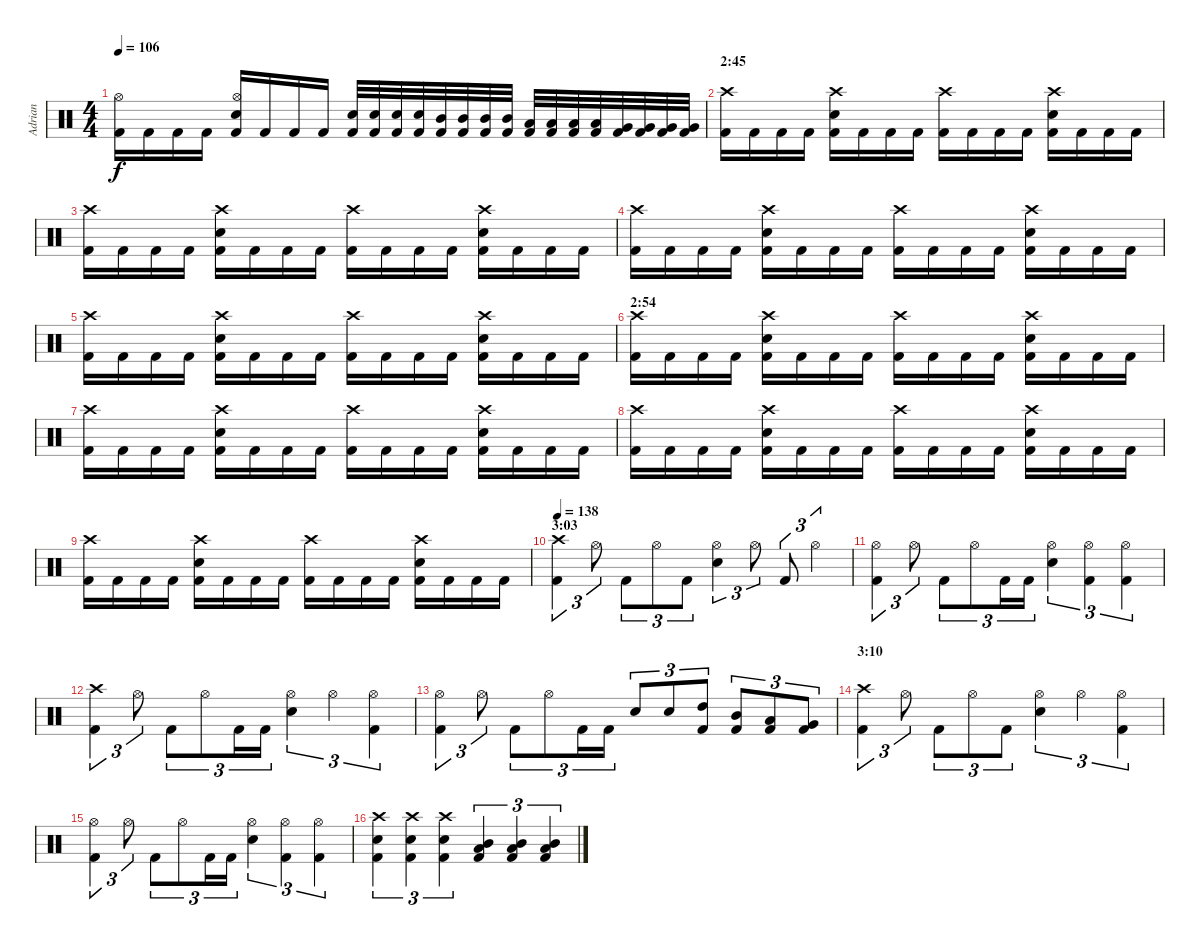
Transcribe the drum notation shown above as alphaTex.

\track ("Adrian" "Adrian") {instrument percussion}
\staff {score}
\articulation defaults
\ts (4 4)
\tempo 106
\clef neutral
\ks c
("Kick (hit) 2" "Hi-Hat (open)").16{dy f} "Kick (hit) 2".16 "Kick (hit) 2".16 "Kick (hit) 2".16 ("Kick (hit) 2" "Snare (hit) 2" "Hi-Hat (open)").16 "Kick (hit) 2".16 "Kick (hit) 2".16 "Kick (hit) 2".16 ("Kick (hit) 2" "Snare (hit) 2").32 ("Kick (hit) 2" "Snare (hit) 2").32 ("Kick (hit) 2" "Snare (hit) 2").32 ("Kick (hit) 2" "Snare (hit) 2").32 ("Kick (hit) 2" "Mid Tom (hit)").32 ("Kick (hit) 2" "Mid Tom (hit)").32 ("Kick (hit) 2" "Mid Tom (hit)").32 ("Kick (hit) 2" "Mid Tom (hit)").32 ("Kick (hit) 2" "Low Tom (hit)").32 ("Kick (hit) 2" "Low Tom (hit)").32 ("Kick (hit) 2" "Low Tom (hit)").32 ("Kick (hit) 2" "Low Tom (hit)").32 ("Kick (hit) 2" "Very Low Tom (hit)").32 ("Kick (hit) 2" "Very Low Tom (hit)").32 ("Kick (hit) 2" "Very Low Tom (hit)").32 ("Kick (hit) 2" "Very Low Tom (hit)").32 |
\section ("" "2:45")
("Kick (hit) 2" "Crash high (hit)").16 "Kick (hit) 2".16 "Kick (hit) 2".16 "Kick (hit) 2".16 ("Kick (hit) 2" "Snare (hit) 2" "Crash high (hit)").16 "Kick (hit) 2".16 "Kick (hit) 2".16 "Kick (hit) 2".16 ("Kick (hit) 2" "Crash high (hit)").16 "Kick (hit) 2".16 "Kick (hit) 2".16 "Kick (hit) 2".16 ("Kick (hit) 2" "Snare (hit) 2" "Crash high (hit)").16 "Kick (hit) 2".16 "Kick (hit) 2".16 "Kick (hit) 2".16 |
("Kick (hit) 2" "Crash high (hit)").16 "Kick (hit) 2".16 "Kick (hit) 2".16 "Kick (hit) 2".16 ("Kick (hit) 2" "Snare (hit) 2" "Crash high (hit)").16 "Kick (hit) 2".16 "Kick (hit) 2".16 "Kick (hit) 2".16 ("Kick (hit) 2" "Crash high (hit)").16 "Kick (hit) 2".16 "Kick (hit) 2".16 "Kick (hit) 2".16 ("Kick (hit) 2" "Snare (hit) 2" "Crash high (hit)").16 "Kick (hit) 2".16 "Kick (hit) 2".16 "Kick (hit) 2".16 |
("Kick (hit) 2" "Crash high (hit)").16 "Kick (hit) 2".16 "Kick (hit) 2".16 "Kick (hit) 2".16 ("Kick (hit) 2" "Snare (hit) 2" "Crash high (hit)").16 "Kick (hit) 2".16 "Kick (hit) 2".16 "Kick (hit) 2".16 ("Kick (hit) 2" "Crash high (hit)").16 "Kick (hit) 2".16 "Kick (hit) 2".16 "Kick (hit) 2".16 ("Kick (hit) 2" "Snare (hit) 2" "Crash high (hit)").16 "Kick (hit) 2".16 "Kick (hit) 2".16 "Kick (hit) 2".16 |
("Kick (hit) 2" "Crash high (hit)").16 "Kick (hit) 2".16 "Kick (hit) 2".16 "Kick (hit) 2".16 ("Kick (hit) 2" "Snare (hit) 2" "Crash high (hit)").16 "Kick (hit) 2".16 "Kick (hit) 2".16 "Kick (hit) 2".16 ("Kick (hit) 2" "Crash high (hit)").16 "Kick (hit) 2".16 "Kick (hit) 2".16 "Kick (hit) 2".16 ("Kick (hit) 2" "Snare (hit) 2" "Crash high (hit)").16 "Kick (hit) 2".16 "Kick (hit) 2".16 "Kick (hit) 2".16 |
\section ("" "2:54")
("Kick (hit) 2" "Crash high (hit)").16 "Kick (hit) 2".16 "Kick (hit) 2".16 "Kick (hit) 2".16 ("Kick (hit) 2" "Snare (hit) 2" "Crash high (hit)").16 "Kick (hit) 2".16 "Kick (hit) 2".16 "Kick (hit) 2".16 ("Kick (hit) 2" "Crash high (hit)").16 "Kick (hit) 2".16 "Kick (hit) 2".16 "Kick (hit) 2".16 ("Kick (hit) 2" "Snare (hit) 2" "Crash high (hit)").16 "Kick (hit) 2".16 "Kick (hit) 2".16 "Kick (hit) 2".16 |
("Kick (hit) 2" "Crash high (hit)").16 "Kick (hit) 2".16 "Kick (hit) 2".16 "Kick (hit) 2".16 ("Kick (hit) 2" "Snare (hit) 2" "Crash high (hit)").16 "Kick (hit) 2".16 "Kick (hit) 2".16 "Kick (hit) 2".16 ("Kick (hit) 2" "Crash high (hit)").16 "Kick (hit) 2".16 "Kick (hit) 2".16 "Kick (hit) 2".16 ("Kick (hit) 2" "Snare (hit) 2" "Crash high (hit)").16 "Kick (hit) 2".16 "Kick (hit) 2".16 "Kick (hit) 2".16 |
("Kick (hit) 2" "Crash high (hit)").16 "Kick (hit) 2".16 "Kick (hit) 2".16 "Kick (hit) 2".16 ("Kick (hit) 2" "Snare (hit) 2" "Crash high (hit)").16 "Kick (hit) 2".16 "Kick (hit) 2".16 "Kick (hit) 2".16 ("Kick (hit) 2" "Crash high (hit)").16 "Kick (hit) 2".16 "Kick (hit) 2".16 "Kick (hit) 2".16 ("Kick (hit) 2" "Snare (hit) 2" "Crash high (hit)").16 "Kick (hit) 2".16 "Kick (hit) 2".16 "Kick (hit) 2".16 |
("Kick (hit) 2" "Crash high (hit)").16 "Kick (hit) 2".16 "Kick (hit) 2".16 "Kick (hit) 2".16 ("Kick (hit) 2" "Snare (hit) 2" "Crash high (hit)").16 "Kick (hit) 2".16 "Kick (hit) 2".16 "Kick (hit) 2".16 ("Kick (hit) 2" "Crash high (hit)").16 "Kick (hit) 2".16 "Kick (hit) 2".16 "Kick (hit) 2".16 ("Kick (hit) 2" "Snare (hit) 2" "Crash high (hit)").16 "Kick (hit) 2".16 "Kick (hit) 2".16 "Kick (hit) 2".16 |
\section ("" "3:03")
\tempo 138
("Kick (hit) 2" "Crash high (hit)").4{tu (3 2)} "Hi-Hat (open)".8{tu (3 2)} "Kick (hit) 2".8{tu (3 2)} "Hi-Hat (open)".8{tu (3 2)} "Kick (hit) 2".8{tu (3 2)} ("Snare (hit) 2" "Hi-Hat (open)").4{tu (3 2)} "Hi-Hat (open)".8{tu (3 2)} "Kick (hit) 2".8{tu (3 2)} "Hi-Hat (open)".4{tu (3 2)} |
("Kick (hit) 2" "Hi-Hat (open)").4{tu (3 2)} "Hi-Hat (open)".8{tu (3 2)} "Kick (hit) 2".8{tu (3 2)} "Hi-Hat (open)".8{tu (3 2)} "Kick (hit) 2".16{tu (3 2)} "Kick (hit) 2".16{tu (3 2)} ("Snare (hit) 2" "Hi-Hat (open)").4{tu (3 2)} ("Kick (hit) 2" "Hi-Hat (open)").4{tu (3 2)} ("Kick (hit) 2" "Hi-Hat (open)").4{tu (3 2)} |
("Kick (hit) 2" "Crash high (hit)").4{tu (3 2)} "Hi-Hat (open)".8{tu (3 2)} "Kick (hit) 2".8{tu (3 2)} "Hi-Hat (open)".8{tu (3 2)} "Kick (hit) 2".16{tu (3 2)} "Kick (hit) 2".16{tu (3 2)} ("Snare (hit) 2" "Hi-Hat (open)").4{tu (3 2)} "Hi-Hat (open)".4{tu (3 2)} ("Kick (hit) 2" "Hi-Hat (open)").4{tu (3 2)} |
("Kick (hit) 2" "Hi-Hat (open)").4{tu (3 2)} "Hi-Hat (open)".8{tu (3 2)} "Kick (hit) 2".8{tu (3 2)} "Hi-Hat (open)".8{tu (3 2)} "Kick (hit) 2".16{tu (3 2)} "Kick (hit) 2".16{tu (3 2)} "Snare (hit) 2".8{tu (3 2)} "Snare (hit) 2".8{tu (3 2)} ("Kick (hit) 2" "High Tom (hit)").8{tu (3 2)} ("Kick (hit) 2" "Mid Tom (hit)").8{tu (3 2)} ("Kick (hit) 2" "Low Tom (hit)").8{tu (3 2)} ("Kick (hit) 2" "Very Low Tom (hit)").8{tu (3 2)} |
\section ("" "3:10")
("Kick (hit) 2" "Crash high (hit)").4{tu (3 2)} "Hi-Hat (open)".8{tu (3 2)} "Kick (hit) 2".8{tu (3 2)} "Hi-Hat (open)".8{tu (3 2)} "Kick (hit) 2".8{tu (3 2)} ("Snare (hit) 2" "Hi-Hat (open)").4{tu (3 2)} "Hi-Hat (open)".4{tu (3 2)} ("Kick (hit) 2" "Hi-Hat (open)").4{tu (3 2)} |
("Kick (hit) 2" "Hi-Hat (open)").4{tu (3 2)} "Hi-Hat (open)".8{tu (3 2)} "Kick (hit) 2".8{tu (3 2)} "Hi-Hat (open)".8{tu (3 2)} "Kick (hit) 2".16{tu (3 2)} "Kick (hit) 2".16{tu (3 2)} ("Snare (hit) 2" "Hi-Hat (open)").4{tu (3 2)} ("Kick (hit) 2" "Hi-Hat (open)").4{tu (3 2)} ("Kick (hit) 2" "Hi-Hat (open)").4{tu (3 2)} |
("Kick (hit) 2" "Snare (hit) 2" "Crash high (hit)").4{tu (3 2)} ("Kick (hit) 2" "Snare (hit) 2" "Crash high (hit)").4{tu (3 2)} ("Kick (hit) 2" "Snare (hit) 2" "Crash high (hit)").4{tu (3 2)} ("Kick (hit) 2" "Low Tom (hit)" "Mid Tom (hit)").4{tu (3 2)} ("Kick (hit) 2" "Low Tom (hit)" "Mid Tom (hit)").4{tu (3 2)} ("Kick (hit) 2" "Low Tom (hit)" "Mid Tom (hit)").4{tu (3 2)}
